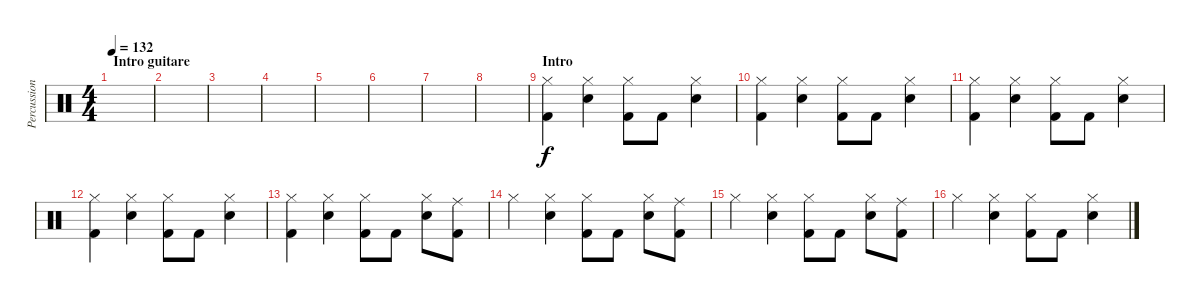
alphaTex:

\track ("Percussions" "Percussion") {instrument percussion}
\staff {score}
\articulation defaults
\ts (4 4)
\section ("" "Intro guitare")
\tempo 132
\clef neutral
\ks c
|
|
|
|
|
|
|
|
\section ("" "Intro")
("Hi-Hat (closed)" "Kick (hit) 2").4 ("Hi-Hat (closed)" "Snare (hit) 2").4 ("Hi-Hat (closed)" "Kick (hit) 2").8 "Kick (hit) 2".8 ("Hi-Hat (closed)" "Snare (hit) 2").4 |
("Hi-Hat (closed)" "Kick (hit) 2").4 ("Hi-Hat (closed)" "Snare (hit) 2").4 ("Hi-Hat (closed)" "Kick (hit) 2").8 "Kick (hit) 2".8 ("Hi-Hat (closed)" "Snare (hit) 2").4 |
("Hi-Hat (closed)" "Kick (hit) 2").4 ("Hi-Hat (closed)" "Snare (hit) 2").4 ("Hi-Hat (closed)" "Kick (hit) 2").8 "Kick (hit) 2".8 ("Hi-Hat (closed)" "Snare (hit) 2").4 |
("Hi-Hat (closed)" "Kick (hit) 2").4 ("Hi-Hat (closed)" "Snare (hit) 2").4 ("Hi-Hat (closed)" "Kick (hit) 2").8 "Kick (hit) 2".8 ("Hi-Hat (closed)" "Snare (hit) 2").4 |
("Hi-Hat (closed)" "Kick (hit) 2").4 ("Hi-Hat (closed)" "Snare (hit) 2").4 ("Hi-Hat (closed)" "Kick (hit) 2").8 "Kick (hit) 2".8 ("Hi-Hat (closed)" "Snare (hit) 2").8 ("Ride (middle)" "Kick (hit) 2").8 |
"Hi-Hat (closed)".4 ("Hi-Hat (closed)" "Snare (hit) 2").4 ("Hi-Hat (closed)" "Kick (hit) 2").8 "Kick (hit) 2".8 ("Hi-Hat (closed)" "Snare (hit) 2").8 ("Ride (middle)" "Kick (hit) 2").8 |
"Hi-Hat (closed)".4 ("Hi-Hat (closed)" "Snare (hit) 2").4 ("Hi-Hat (closed)" "Kick (hit) 2").8 "Kick (hit) 2".8 ("Hi-Hat (closed)" "Snare (hit) 2").8 ("Ride (middle)" "Kick (hit) 2").8 |
"Hi-Hat (closed)".4 ("Hi-Hat (closed)" "Snare (hit) 2").4 ("Hi-Hat (closed)" "Kick (hit) 2").8 "Kick (hit) 2".8 ("Hi-Hat (closed)" "Snare (hit) 2").4
